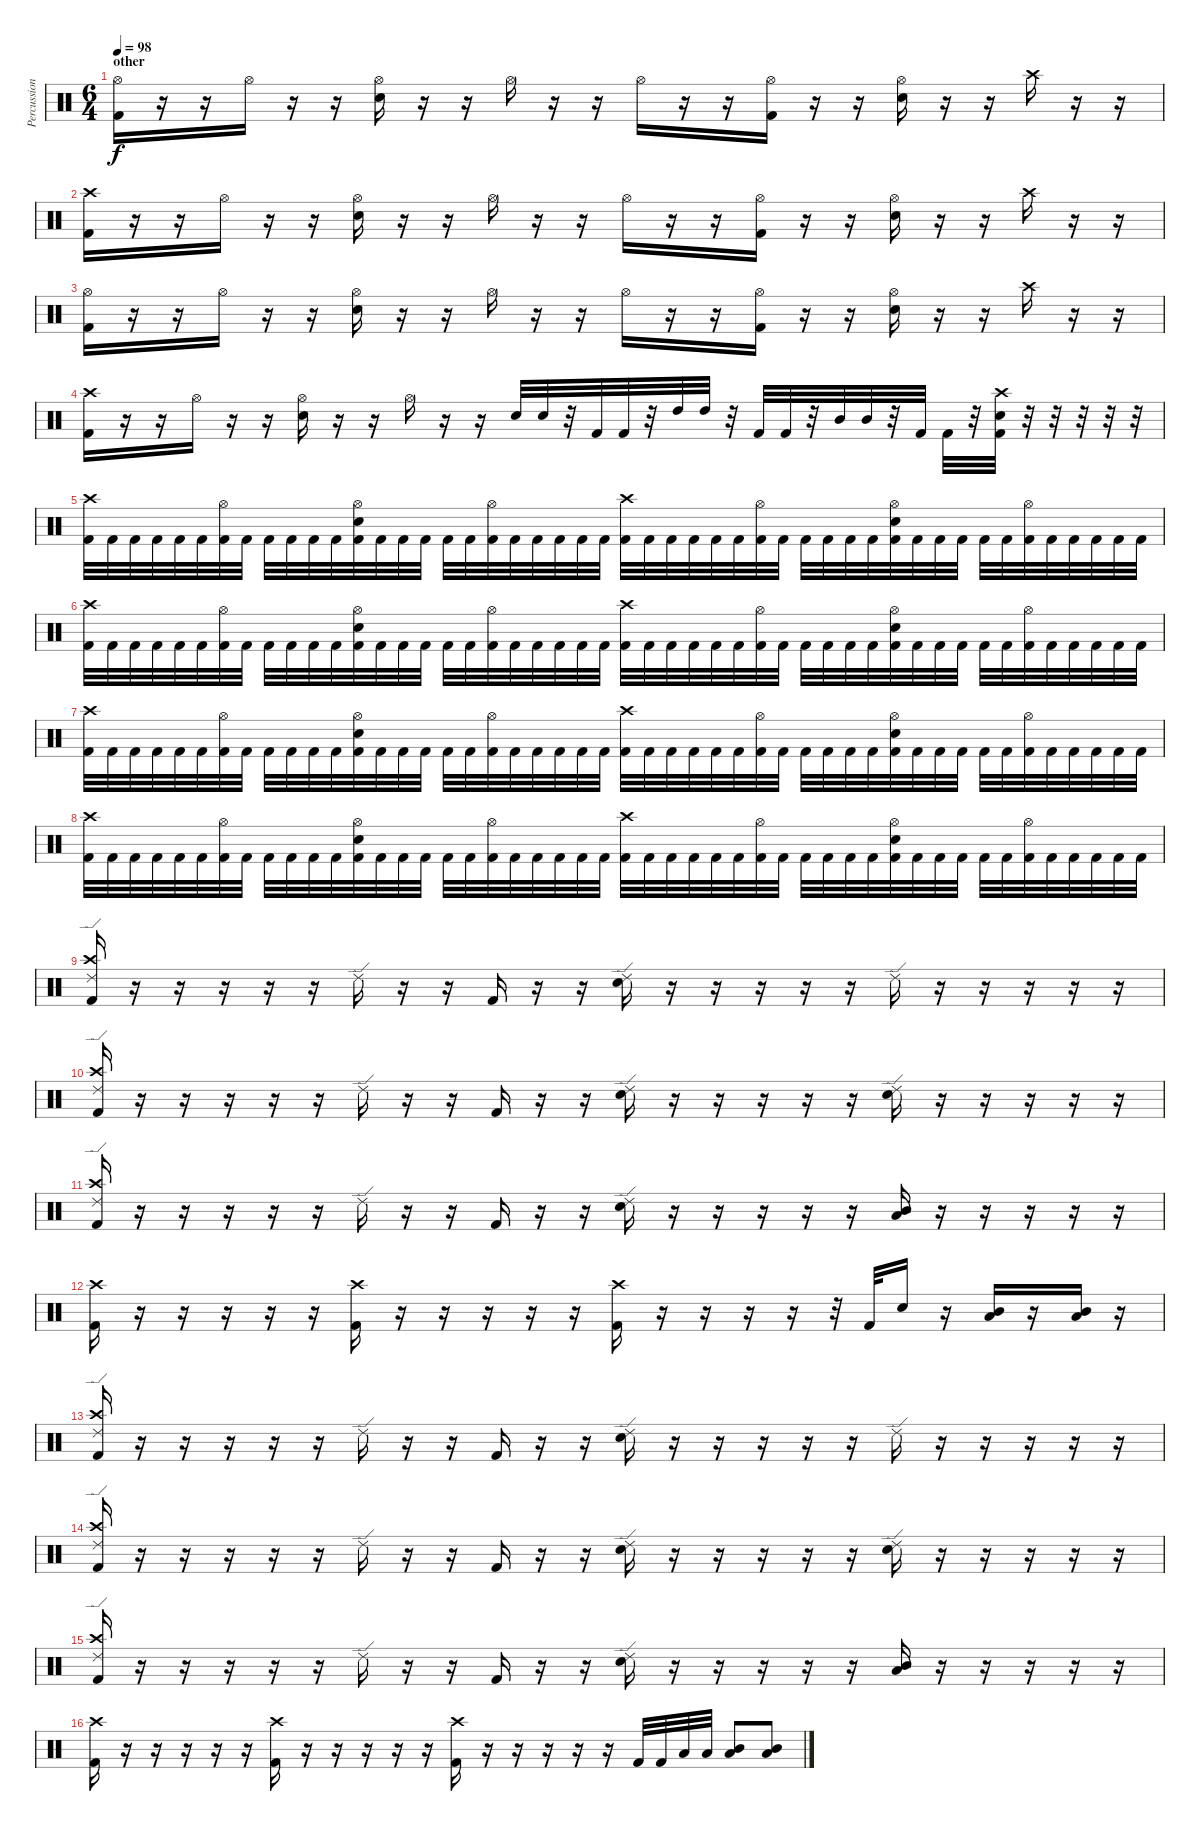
\track ("Percussion" "Percussion") {instrument percussion}
\staff {score}
\articulation defaults
\ts (6 4)
\section ("" "other ")
\tempo 98
\clef neutral
\ks c
("Hi-Hat (open)" "Kick (hit) 2").16{dy f} r.16 r.16 "Hi-Hat (open)".16 r.16 r.16 ("Hi-Hat (open)" "Electric Snare (hit)").16 r.16 r.16 "Hi-Hat (open)".16 r.16 r.16 "Hi-Hat (open)".16 r.16 r.16 ("Hi-Hat (open)" "Kick (hit) 2").16 r.16 r.16 ("Hi-Hat (open)" "Electric Snare (hit)").16 r.16 r.16 "Crash high (hit)".16 r.16 r.16 |
("Crash high (hit)" "Kick (hit) 2").16 r.16 r.16 "Hi-Hat (open)".16 r.16 r.16 ("Hi-Hat (open)" "Electric Snare (hit)").16 r.16 r.16 "Hi-Hat (open)".16 r.16 r.16 "Hi-Hat (open)".16 r.16 r.16 ("Hi-Hat (open)" "Kick (hit) 2").16 r.16 r.16 ("Hi-Hat (open)" "Electric Snare (hit)").16 r.16 r.16 "Crash high (hit)".16 r.16 r.16 |
("Hi-Hat (open)" "Kick (hit) 2").16 r.16 r.16 "Hi-Hat (open)".16 r.16 r.16 ("Hi-Hat (open)" "Electric Snare (hit)").16 r.16 r.16 "Hi-Hat (open)".16 r.16 r.16 "Hi-Hat (open)".16 r.16 r.16 ("Hi-Hat (open)" "Kick (hit) 2").16 r.16 r.16 ("Hi-Hat (open)" "Electric Snare (hit)").16 r.16 r.16 "Crash high (hit)".16 r.16 r.16 |
("Crash high (hit)" "Kick (hit) 2").16 r.16 r.16 "Hi-Hat (open)".16 r.16 r.16 ("Hi-Hat (open)" "Electric Snare (hit)").16 r.16 r.16 "Hi-Hat (open)".16 r.16 r.16 "Electric Snare (hit)".32 "Electric Snare (hit)".32 r.32 "Kick (hit) 2".32 "Kick (hit) 2".32 r.32 "High Tom (hit)".32 "High Tom (hit)".32 r.32 "Kick (hit) 2".32 "Kick (hit) 2".32 r.32 "Mid Tom (hit)".32 "Mid Tom (hit)".32 r.32 "Kick (hit) 2".32 "Kick (hit) 2".32 r.32 ("Crash high (hit)" "Electric Snare (hit)" "Kick (hit) 2").32 r.32 r.32 r.32 r.32 r.32 |
("Crash high (hit)" "Kick (hit) 2").32 "Kick (hit) 2".32 "Kick (hit) 2".32 "Kick (hit) 2".32 "Kick (hit) 2".32 "Kick (hit) 2".32 ("Hi-Hat (open)" "Kick (hit) 2").32 "Kick (hit) 2".32 "Kick (hit) 2".32 "Kick (hit) 2".32 "Kick (hit) 2".32 "Kick (hit) 2".32 ("Hi-Hat (open)" "Electric Snare (hit)" "Kick (hit) 2").32 "Kick (hit) 2".32 "Kick (hit) 2".32 "Kick (hit) 2".32 "Kick (hit) 2".32 "Kick (hit) 2".32 ("Hi-Hat (open)" "Kick (hit) 2").32 "Kick (hit) 2".32 "Kick (hit) 2".32 "Kick (hit) 2".32 "Kick (hit) 2".32 "Kick (hit) 2".32 ("Crash high (hit)" "Kick (hit) 2").32 "Kick (hit) 2".32 "Kick (hit) 2".32 "Kick (hit) 2".32 "Kick (hit) 2".32 "Kick (hit) 2".32 ("Hi-Hat (open)" "Kick (hit) 2").32 "Kick (hit) 2".32 "Kick (hit) 2".32 "Kick (hit) 2".32 "Kick (hit) 2".32 "Kick (hit) 2".32 ("Hi-Hat (open)" "Electric Snare (hit)" "Kick (hit) 2").32 "Kick (hit) 2".32 "Kick (hit) 2".32 "Kick (hit) 2".32 "Kick (hit) 2".32 "Kick (hit) 2".32 ("Hi-Hat (open)" "Kick (hit) 2").32 "Kick (hit) 2".32 "Kick (hit) 2".32 "Kick (hit) 2".32 "Kick (hit) 2".32 "Kick (hit) 2".32 |
("Crash high (hit)" "Kick (hit) 2").32 "Kick (hit) 2".32 "Kick (hit) 2".32 "Kick (hit) 2".32 "Kick (hit) 2".32 "Kick (hit) 2".32 ("Hi-Hat (open)" "Kick (hit) 2").32 "Kick (hit) 2".32 "Kick (hit) 2".32 "Kick (hit) 2".32 "Kick (hit) 2".32 "Kick (hit) 2".32 ("Hi-Hat (open)" "Electric Snare (hit)" "Kick (hit) 2").32 "Kick (hit) 2".32 "Kick (hit) 2".32 "Kick (hit) 2".32 "Kick (hit) 2".32 "Kick (hit) 2".32 ("Hi-Hat (open)" "Kick (hit) 2").32 "Kick (hit) 2".32 "Kick (hit) 2".32 "Kick (hit) 2".32 "Kick (hit) 2".32 "Kick (hit) 2".32 ("Crash high (hit)" "Kick (hit) 2").32 "Kick (hit) 2".32 "Kick (hit) 2".32 "Kick (hit) 2".32 "Kick (hit) 2".32 "Kick (hit) 2".32 ("Hi-Hat (open)" "Kick (hit) 2").32 "Kick (hit) 2".32 "Kick (hit) 2".32 "Kick (hit) 2".32 "Kick (hit) 2".32 "Kick (hit) 2".32 ("Hi-Hat (open)" "Electric Snare (hit)" "Kick (hit) 2").32 "Kick (hit) 2".32 "Kick (hit) 2".32 "Kick (hit) 2".32 "Kick (hit) 2".32 "Kick (hit) 2".32 ("Hi-Hat (open)" "Kick (hit) 2").32 "Kick (hit) 2".32 "Kick (hit) 2".32 "Kick (hit) 2".32 "Kick (hit) 2".32 "Kick (hit) 2".32 |
("Crash high (hit)" "Kick (hit) 2").32 "Kick (hit) 2".32 "Kick (hit) 2".32 "Kick (hit) 2".32 "Kick (hit) 2".32 "Kick (hit) 2".32 ("Hi-Hat (open)" "Kick (hit) 2").32 "Kick (hit) 2".32 "Kick (hit) 2".32 "Kick (hit) 2".32 "Kick (hit) 2".32 "Kick (hit) 2".32 ("Hi-Hat (open)" "Electric Snare (hit)" "Kick (hit) 2").32 "Kick (hit) 2".32 "Kick (hit) 2".32 "Kick (hit) 2".32 "Kick (hit) 2".32 "Kick (hit) 2".32 ("Hi-Hat (open)" "Kick (hit) 2").32 "Kick (hit) 2".32 "Kick (hit) 2".32 "Kick (hit) 2".32 "Kick (hit) 2".32 "Kick (hit) 2".32 ("Crash high (hit)" "Kick (hit) 2").32 "Kick (hit) 2".32 "Kick (hit) 2".32 "Kick (hit) 2".32 "Kick (hit) 2".32 "Kick (hit) 2".32 ("Hi-Hat (open)" "Kick (hit) 2").32 "Kick (hit) 2".32 "Kick (hit) 2".32 "Kick (hit) 2".32 "Kick (hit) 2".32 "Kick (hit) 2".32 ("Hi-Hat (open)" "Electric Snare (hit)" "Kick (hit) 2").32 "Kick (hit) 2".32 "Kick (hit) 2".32 "Kick (hit) 2".32 "Kick (hit) 2".32 "Kick (hit) 2".32 ("Hi-Hat (open)" "Kick (hit) 2").32 "Kick (hit) 2".32 "Kick (hit) 2".32 "Kick (hit) 2".32 "Kick (hit) 2".32 "Kick (hit) 2".32 |
("Crash high (hit)" "Kick (hit) 2").32 "Kick (hit) 2".32 "Kick (hit) 2".32 "Kick (hit) 2".32 "Kick (hit) 2".32 "Kick (hit) 2".32 ("Hi-Hat (open)" "Kick (hit) 2").32 "Kick (hit) 2".32 "Kick (hit) 2".32 "Kick (hit) 2".32 "Kick (hit) 2".32 "Kick (hit) 2".32 ("Hi-Hat (open)" "Electric Snare (hit)" "Kick (hit) 2").32 "Kick (hit) 2".32 "Kick (hit) 2".32 "Kick (hit) 2".32 "Kick (hit) 2".32 "Kick (hit) 2".32 ("Hi-Hat (open)" "Kick (hit) 2").32 "Kick (hit) 2".32 "Kick (hit) 2".32 "Kick (hit) 2".32 "Kick (hit) 2".32 "Kick (hit) 2".32 ("Crash high (hit)" "Kick (hit) 2").32 "Kick (hit) 2".32 "Kick (hit) 2".32 "Kick (hit) 2".32 "Kick (hit) 2".32 "Kick (hit) 2".32 ("Hi-Hat (open)" "Kick (hit) 2").32 "Kick (hit) 2".32 "Kick (hit) 2".32 "Kick (hit) 2".32 "Kick (hit) 2".32 "Kick (hit) 2".32 ("Hi-Hat (open)" "Electric Snare (hit)" "Kick (hit) 2").32 "Kick (hit) 2".32 "Kick (hit) 2".32 "Kick (hit) 2".32 "Kick (hit) 2".32 "Kick (hit) 2".32 ("Hi-Hat (open)" "Kick (hit) 2").32 "Kick (hit) 2".32 "Kick (hit) 2".32 "Kick (hit) 2".32 "Kick (hit) 2".32 "Kick (hit) 2".32 |
("Ride (edge) 2" "Crash high (hit)" "Kick (hit) 2").16 r.16 r.16 r.16 r.16 r.16 "Ride (edge) 2".16 r.16 r.16 "Kick (hit) 2".16 r.16 r.16 ("Ride (edge) 2" "Electric Snare (hit)").16 r.16 r.16 r.16 r.16 r.16 "Ride (edge) 2".16 r.16 r.16 r.16 r.16 r.16 |
("Ride (edge) 2" "Crash high (hit)" "Kick (hit) 2").16 r.16 r.16 r.16 r.16 r.16 "Ride (edge) 2".16 r.16 r.16 "Kick (hit) 2".16 r.16 r.16 ("Ride (edge) 2" "Electric Snare (hit)").16 r.16 r.16 r.16 r.16 r.16 ("Ride (edge) 2" "Electric Snare (hit)").16 r.16 r.16 r.16 r.16 r.16 |
("Ride (edge) 2" "Crash high (hit)" "Kick (hit) 2").16 r.16 r.16 r.16 r.16 r.16 "Ride (edge) 2".16 r.16 r.16 "Kick (hit) 2".16 r.16 r.16 ("Ride (edge) 2" "Electric Snare (hit)").16 r.16 r.16 r.16 r.16 r.16 ("Mid Tom (hit)" "Low Tom (hit)").16 r.16 r.16 r.16 r.16 r.16 |
("Crash high (hit)" "Kick (hit) 2").16 r.16 r.16 r.16 r.16 r.16 ("Crash high (hit)" "Kick (hit) 2").16 r.16 r.16 r.16 r.16 r.16 ("Crash high (hit)" "Kick (hit) 2").16 r.16 r.16 r.16 r.16 r.32 "Kick (hit) 2".32 "Electric Snare (hit)".16 r.16 ("Mid Tom (hit)" "Low Floor Tom (hit)").16 r.16 ("Mid Tom (hit)" "Low Floor Tom (hit)").16 r.16 |
("Ride (edge) 2" "Crash high (hit)" "Kick (hit) 2").16 r.16 r.16 r.16 r.16 r.16 "Ride (edge) 2".16 r.16 r.16 "Kick (hit) 2".16 r.16 r.16 ("Ride (edge) 2" "Electric Snare (hit)").16 r.16 r.16 r.16 r.16 r.16 "Ride (edge) 2".16 r.16 r.16 r.16 r.16 r.16 |
("Ride (edge) 2" "Crash high (hit)" "Kick (hit) 2").16 r.16 r.16 r.16 r.16 r.16 "Ride (edge) 2".16 r.16 r.16 "Kick (hit) 2".16 r.16 r.16 ("Ride (edge) 2" "Electric Snare (hit)").16 r.16 r.16 r.16 r.16 r.16 ("Ride (edge) 2" "Electric Snare (hit)").16 r.16 r.16 r.16 r.16 r.16 |
("Ride (edge) 2" "Crash high (hit)" "Kick (hit) 2").16 r.16 r.16 r.16 r.16 r.16 "Ride (edge) 2".16 r.16 r.16 "Kick (hit) 2".16 r.16 r.16 ("Ride (edge) 2" "Electric Snare (hit)").16 r.16 r.16 r.16 r.16 r.16 ("Mid Tom (hit)" "Low Tom (hit)").16 r.16 r.16 r.16 r.16 r.16 |
("Crash high (hit)" "Kick (hit) 2").16 r.16 r.16 r.16 r.16 r.16 ("Crash high (hit)" "Kick (hit) 2").16 r.16 r.16 r.16 r.16 r.16 ("Crash high (hit)" "Kick (hit) 2").16 r.16 r.16 r.16 r.16 r.16 "Kick (hit) 2".32 "Kick (hit) 2".32 "Low Tom (hit)".32 "Low Tom (hit)".32 ("Mid Tom (hit)" "Low Tom (hit)").8 ("Mid Tom (hit)" "Low Tom (hit)").8
